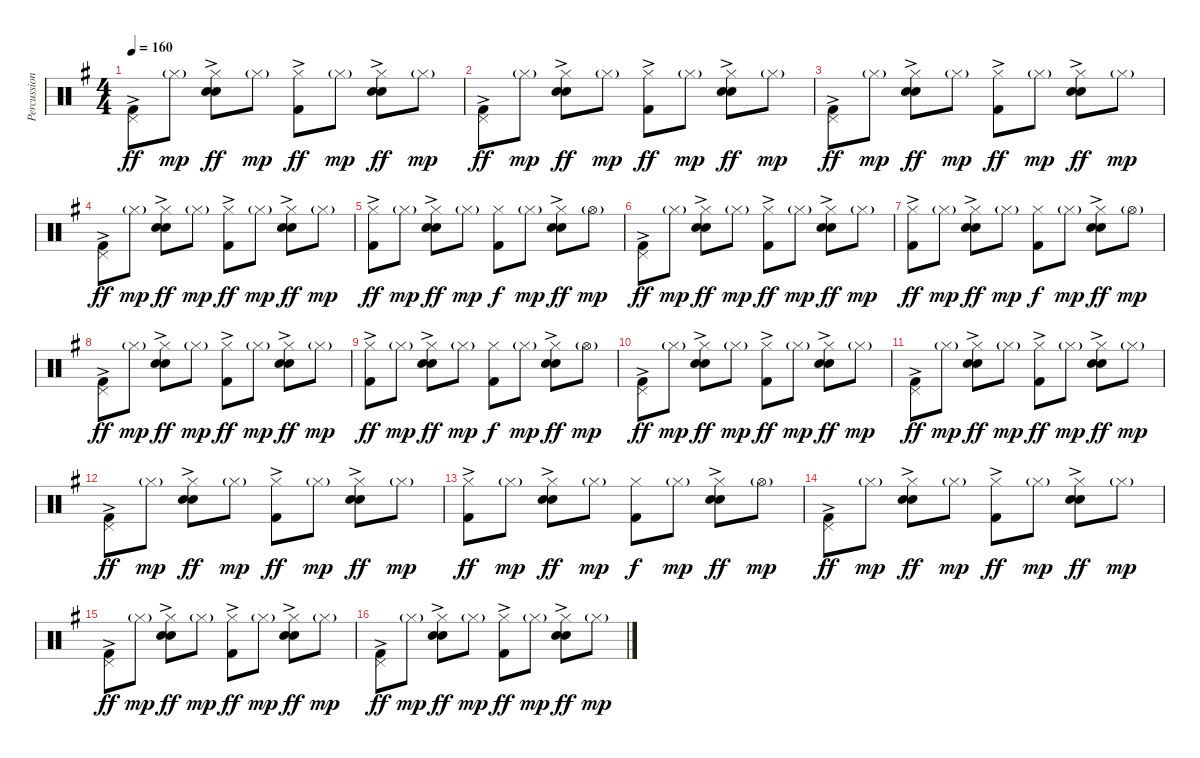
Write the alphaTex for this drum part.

\track ("Percussion" "Percussion") {instrument percussion}
\staff {score}
\articulation defaults
\ts (4 4)
\tempo 160
\clef neutral
\ks g
("Pedal Hi-Hat (hit)" "Kick (hit) 2"{ac}).8{dy ff} "Hi-Hat (closed)"{g}.8{dy mp} ("Hi-Hat (closed)" "Electric Snare (hit)"{ac} "Snare (hit) 2").8{dy ff} "Hi-Hat (closed)"{g}.8{dy mp} ("Hi-Hat (closed)" "Kick (hit) 2"{ac}).8{dy ff} "Hi-Hat (closed)"{g}.8{dy mp} ("Hi-Hat (closed)" "Electric Snare (hit)"{ac} "Snare (hit) 2").8{dy ff} "Hi-Hat (closed)"{g}.8{dy mp} |
("Pedal Hi-Hat (hit)" "Kick (hit) 2"{ac}).8{dy ff} "Hi-Hat (closed)"{g}.8{dy mp} ("Hi-Hat (closed)" "Electric Snare (hit)"{ac} "Snare (hit) 2").8{dy ff} "Hi-Hat (closed)"{g}.8{dy mp} ("Hi-Hat (closed)" "Kick (hit) 2"{ac}).8{dy ff} "Hi-Hat (closed)"{g}.8{dy mp} ("Hi-Hat (closed)" "Electric Snare (hit)"{ac} "Snare (hit) 2").8{dy ff} "Hi-Hat (closed)"{g}.8{dy mp} |
("Pedal Hi-Hat (hit)" "Kick (hit) 2"{ac}).8{dy ff} "Hi-Hat (closed)"{g}.8{dy mp} ("Hi-Hat (closed)" "Electric Snare (hit)"{ac} "Snare (hit) 2").8{dy ff} "Hi-Hat (closed)"{g}.8{dy mp} ("Hi-Hat (closed)" "Kick (hit) 2"{ac}).8{dy ff} "Hi-Hat (closed)"{g}.8{dy mp} ("Hi-Hat (closed)" "Electric Snare (hit)"{ac} "Snare (hit) 2").8{dy ff} "Hi-Hat (closed)"{g}.8{dy mp} |
("Pedal Hi-Hat (hit)" "Kick (hit) 2"{ac}).8{dy ff} "Hi-Hat (closed)"{g}.8{dy mp} ("Hi-Hat (closed)" "Electric Snare (hit)"{ac} "Snare (hit) 2").8{dy ff} "Hi-Hat (closed)"{g}.8{dy mp} ("Hi-Hat (closed)" "Kick (hit) 2"{ac}).8{dy ff} "Hi-Hat (closed)"{g}.8{dy mp} ("Hi-Hat (closed)" "Electric Snare (hit)"{ac} "Snare (hit) 2").8{dy ff} "Hi-Hat (closed)"{g}.8{dy mp} |
("Hi-Hat (closed)" "Kick (hit) 2"{ac}).8{dy ff} "Hi-Hat (closed)"{g}.8{dy mp} ("Hi-Hat (closed)" "Electric Snare (hit)"{ac} "Snare (hit) 2").8{dy ff} "Hi-Hat (closed)"{g}.8{dy mp} ("Hi-Hat (closed)" "Kick (hit) 2").8{dy f} "Hi-Hat (closed)"{g}.8{dy mp} ("Hi-Hat (closed)" "Electric Snare (hit)"{ac} "Snare (hit) 2").8{dy ff} "Hi-Hat (open)"{g}.8{dy mp} |
("Pedal Hi-Hat (hit)" "Kick (hit) 2"{ac}).8{dy ff} "Hi-Hat (closed)"{g}.8{dy mp} ("Hi-Hat (closed)" "Electric Snare (hit)"{ac} "Snare (hit) 2").8{dy ff} "Hi-Hat (closed)"{g}.8{dy mp} ("Hi-Hat (closed)" "Kick (hit) 2"{ac}).8{dy ff} "Hi-Hat (closed)"{g}.8{dy mp} ("Hi-Hat (closed)" "Electric Snare (hit)"{ac} "Snare (hit) 2").8{dy ff} "Hi-Hat (closed)"{g}.8{dy mp} |
("Hi-Hat (closed)" "Kick (hit) 2"{ac}).8{dy ff} "Hi-Hat (closed)"{g}.8{dy mp} ("Hi-Hat (closed)" "Electric Snare (hit)"{ac} "Snare (hit) 2").8{dy ff} "Hi-Hat (closed)"{g}.8{dy mp} ("Hi-Hat (closed)" "Kick (hit) 2").8{dy f} "Hi-Hat (closed)"{g}.8{dy mp} ("Hi-Hat (closed)" "Electric Snare (hit)"{ac} "Snare (hit) 2").8{dy ff} "Hi-Hat (open)"{g}.8{dy mp} |
("Pedal Hi-Hat (hit)" "Kick (hit) 2"{ac}).8{dy ff} "Hi-Hat (closed)"{g}.8{dy mp} ("Hi-Hat (closed)" "Electric Snare (hit)"{ac} "Snare (hit) 2").8{dy ff} "Hi-Hat (closed)"{g}.8{dy mp} ("Hi-Hat (closed)" "Kick (hit) 2"{ac}).8{dy ff} "Hi-Hat (closed)"{g}.8{dy mp} ("Hi-Hat (closed)" "Electric Snare (hit)"{ac} "Snare (hit) 2").8{dy ff} "Hi-Hat (closed)"{g}.8{dy mp} |
("Hi-Hat (closed)" "Kick (hit) 2"{ac}).8{dy ff} "Hi-Hat (closed)"{g}.8{dy mp} ("Hi-Hat (closed)" "Electric Snare (hit)"{ac} "Snare (hit) 2").8{dy ff} "Hi-Hat (closed)"{g}.8{dy mp} ("Hi-Hat (closed)" "Kick (hit) 2").8{dy f} "Hi-Hat (closed)"{g}.8{dy mp} ("Hi-Hat (closed)" "Electric Snare (hit)"{ac} "Snare (hit) 2").8{dy ff} "Hi-Hat (open)"{g}.8{dy mp} |
("Pedal Hi-Hat (hit)" "Kick (hit) 2"{ac}).8{dy ff} "Hi-Hat (closed)"{g}.8{dy mp} ("Hi-Hat (closed)" "Electric Snare (hit)"{ac} "Snare (hit) 2").8{dy ff} "Hi-Hat (closed)"{g}.8{dy mp} ("Hi-Hat (closed)" "Kick (hit) 2"{ac}).8{dy ff} "Hi-Hat (closed)"{g}.8{dy mp} ("Hi-Hat (closed)" "Electric Snare (hit)"{ac} "Snare (hit) 2").8{dy ff} "Hi-Hat (closed)"{g}.8{dy mp} |
("Pedal Hi-Hat (hit)" "Kick (hit) 2"{ac}).8{dy ff} "Hi-Hat (closed)"{g}.8{dy mp} ("Hi-Hat (closed)" "Electric Snare (hit)"{ac} "Snare (hit) 2").8{dy ff} "Hi-Hat (closed)"{g}.8{dy mp} ("Hi-Hat (closed)" "Kick (hit) 2"{ac}).8{dy ff} "Hi-Hat (closed)"{g}.8{dy mp} ("Hi-Hat (closed)" "Electric Snare (hit)"{ac} "Snare (hit) 2").8{dy ff} "Hi-Hat (closed)"{g}.8{dy mp} |
("Pedal Hi-Hat (hit)" "Kick (hit) 2"{ac}).8{dy ff} "Hi-Hat (closed)"{g}.8{dy mp} ("Hi-Hat (closed)" "Electric Snare (hit)"{ac} "Snare (hit) 2").8{dy ff} "Hi-Hat (closed)"{g}.8{dy mp} ("Hi-Hat (closed)" "Kick (hit) 2"{ac}).8{dy ff} "Hi-Hat (closed)"{g}.8{dy mp} ("Hi-Hat (closed)" "Electric Snare (hit)"{ac} "Snare (hit) 2").8{dy ff} "Hi-Hat (closed)"{g}.8{dy mp} |
("Hi-Hat (closed)" "Kick (hit) 2"{ac}).8{dy ff} "Hi-Hat (closed)"{g}.8{dy mp} ("Hi-Hat (closed)" "Electric Snare (hit)"{ac} "Snare (hit) 2").8{dy ff} "Hi-Hat (closed)"{g}.8{dy mp} ("Hi-Hat (closed)" "Kick (hit) 2").8{dy f} "Hi-Hat (closed)"{g}.8{dy mp} ("Hi-Hat (closed)" "Electric Snare (hit)"{ac} "Snare (hit) 2").8{dy ff} "Hi-Hat (open)"{g}.8{dy mp} |
("Pedal Hi-Hat (hit)" "Kick (hit) 2"{ac}).8{dy ff} "Hi-Hat (closed)"{g}.8{dy mp} ("Hi-Hat (closed)" "Electric Snare (hit)"{ac} "Snare (hit) 2").8{dy ff} "Hi-Hat (closed)"{g}.8{dy mp} ("Hi-Hat (closed)" "Kick (hit) 2"{ac}).8{dy ff} "Hi-Hat (closed)"{g}.8{dy mp} ("Hi-Hat (closed)" "Electric Snare (hit)"{ac} "Snare (hit) 2").8{dy ff} "Hi-Hat (closed)"{g}.8{dy mp} |
("Pedal Hi-Hat (hit)" "Kick (hit) 2"{ac}).8{dy ff} "Hi-Hat (closed)"{g}.8{dy mp} ("Hi-Hat (closed)" "Electric Snare (hit)"{ac} "Snare (hit) 2").8{dy ff} "Hi-Hat (closed)"{g}.8{dy mp} ("Hi-Hat (closed)" "Kick (hit) 2"{ac}).8{dy ff} "Hi-Hat (closed)"{g}.8{dy mp} ("Hi-Hat (closed)" "Electric Snare (hit)"{ac} "Snare (hit) 2").8{dy ff} "Hi-Hat (closed)"{g}.8{dy mp} |
("Pedal Hi-Hat (hit)" "Kick (hit) 2"{ac}).8{dy ff} "Hi-Hat (closed)"{g}.8{dy mp} ("Hi-Hat (closed)" "Electric Snare (hit)"{ac} "Snare (hit) 2").8{dy ff} "Hi-Hat (closed)"{g}.8{dy mp} ("Hi-Hat (closed)" "Kick (hit) 2"{ac}).8{dy ff} "Hi-Hat (closed)"{g}.8{dy mp} ("Hi-Hat (closed)" "Electric Snare (hit)"{ac} "Snare (hit) 2").8{dy ff} "Hi-Hat (closed)"{g}.8{dy mp}
